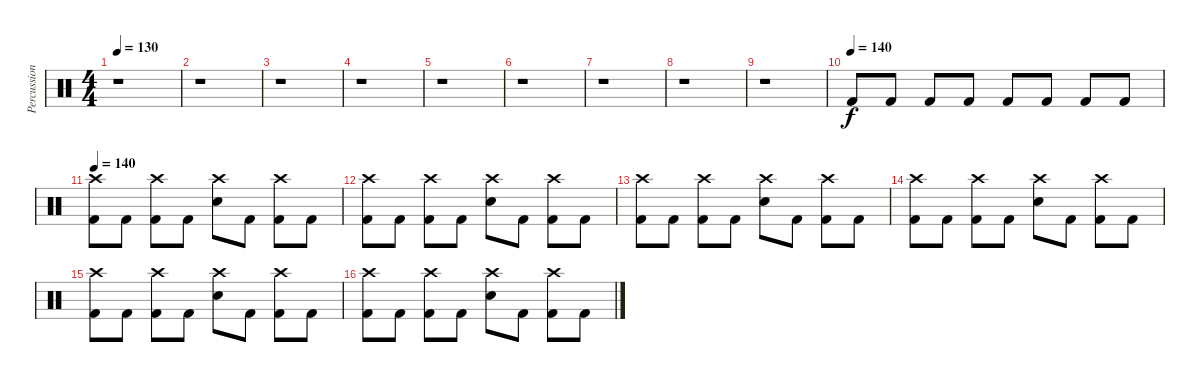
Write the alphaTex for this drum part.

\track ("Percussion" "Percussion") {instrument percussion}
\staff {score}
\articulation defaults
\ts (4 4)
\tempo 130
\clef neutral
\ks c
r.1{dy ff} |
r.1 |
r.1 |
r.1 |
r.1 |
r.1 |
r.1 |
r.1 |
r.1 |
\tempo (140)
"Kick (hit) 2".8{dy f} "Kick (hit) 2".8 "Kick (hit) 2".8 "Kick (hit) 2".8 "Kick (hit) 2".8 "Kick (hit) 2".8 "Kick (hit) 2".8 "Kick (hit) 2".8 |
\tempo 140
("Crash high (hit)" "Kick (hit) 2").8 "Kick (hit) 2".8 ("Crash high (hit)" "Kick (hit) 2").8 "Kick (hit) 2".8 ("Crash high (hit)" "Snare (hit) 2").8 "Kick (hit) 2".8 ("Crash high (hit)" "Kick (hit) 2").8 "Kick (hit) 2".8 |
("Crash high (hit)" "Kick (hit) 2").8 "Kick (hit) 2".8 ("Crash high (hit)" "Kick (hit) 2").8 "Kick (hit) 2".8 ("Crash high (hit)" "Snare (hit) 2").8 "Kick (hit) 2".8 ("Crash high (hit)" "Kick (hit) 2").8 "Kick (hit) 2".8 |
("Crash high (hit)" "Kick (hit) 2").8 "Kick (hit) 2".8 ("Crash high (hit)" "Kick (hit) 2").8 "Kick (hit) 2".8 ("Crash high (hit)" "Snare (hit) 2").8 "Kick (hit) 2".8 ("Crash high (hit)" "Kick (hit) 2").8 "Kick (hit) 2".8 |
("Crash high (hit)" "Kick (hit) 2").8 "Kick (hit) 2".8 ("Crash high (hit)" "Kick (hit) 2").8 "Kick (hit) 2".8 ("Crash high (hit)" "Snare (hit) 2").8 "Kick (hit) 2".8 ("Crash high (hit)" "Kick (hit) 2").8 "Kick (hit) 2".8 |
("Crash high (hit)" "Kick (hit) 2").8 "Kick (hit) 2".8 ("Crash high (hit)" "Kick (hit) 2").8 "Kick (hit) 2".8 ("Crash high (hit)" "Snare (hit) 2").8 "Kick (hit) 2".8 ("Crash high (hit)" "Kick (hit) 2").8 "Kick (hit) 2".8 |
("Crash high (hit)" "Kick (hit) 2").8 "Kick (hit) 2".8 ("Crash high (hit)" "Kick (hit) 2").8 "Kick (hit) 2".8 ("Crash high (hit)" "Snare (hit) 2").8 "Kick (hit) 2".8 ("Crash high (hit)" "Kick (hit) 2").8 "Kick (hit) 2".8
